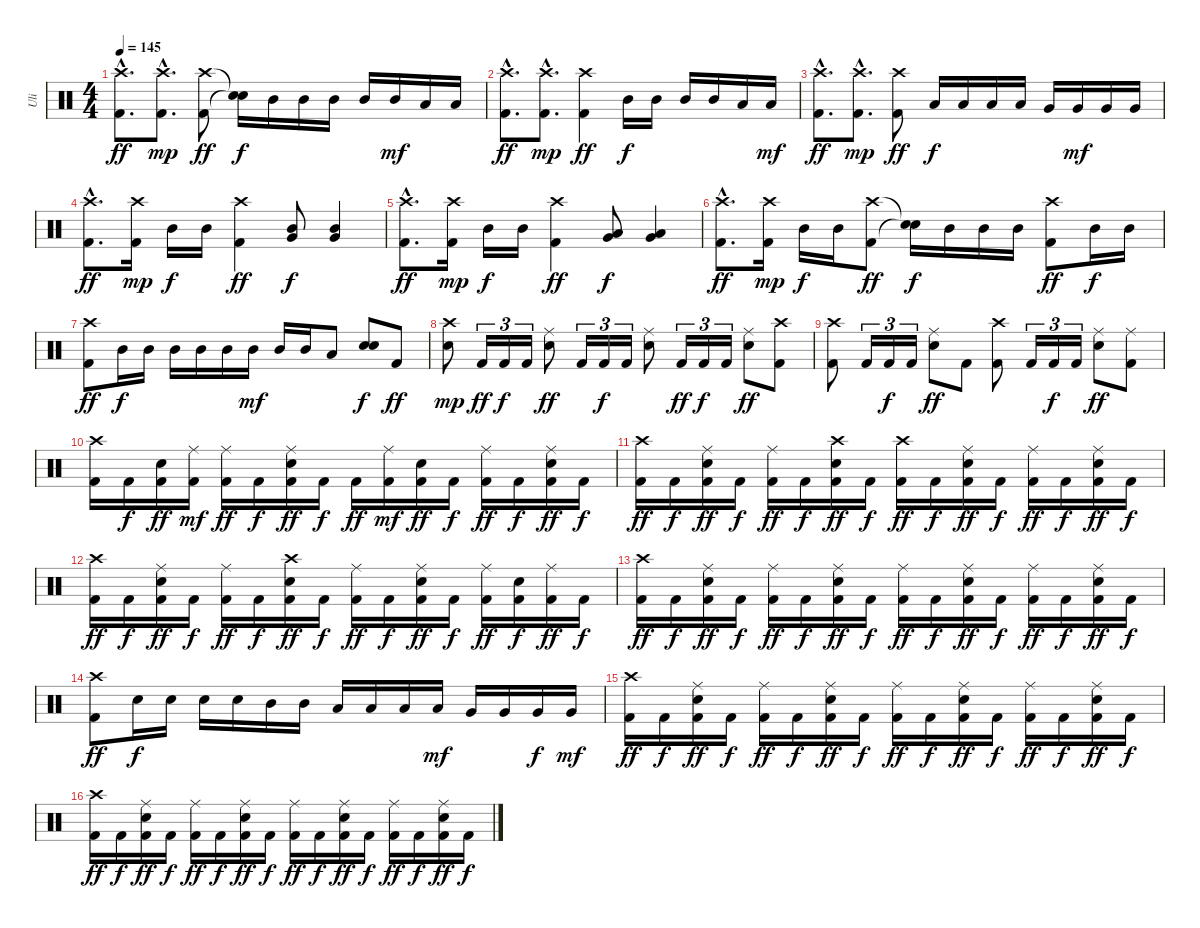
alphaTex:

\track ("Uli" "Uli") {instrument percussion}
\staff {score}
\articulation defaults
\ts (4 4)
\tempo 145
\clef neutral
\ks c
("Crash high (hit)"{hac} "Kick (hit) 2"{hac}).8{d dy ff} ("Crash high (hit)"{hac} "Kick (hit) 2"{hac}).8{d dy mp} ("Crash high (hit)" "Kick (hit) 2").8{dy ff} ("Snare (hit)"{t} "Snare (hit)"{t}).16{dy f} "Mid Tom (hit)".16 "Mid Tom (hit)".16 "Mid Tom (hit)".16 "Mid Tom (hit)".16 "Mid Tom (hit)".16{dy mf} "Low Tom (hit)".16 "Low Tom (hit)".16 |
("Crash high (hit)"{hac} "Kick (hit) 2"{hac}).8{d dy ff} ("Crash high (hit)"{hac} "Kick (hit) 2"{hac}).8{d dy mp} ("Crash high (hit)" "Kick (hit) 2").4{dy ff} "Mid Tom (hit)".16{dy f} "Mid Tom (hit)".16 "Mid Tom (hit)".16 "Mid Tom (hit)".16 "Low Tom (hit)".16 "Low Tom (hit)".16{dy mf} |
("Crash high (hit)"{hac} "Kick (hit) 2"{hac}).8{d dy ff} ("Crash high (hit)"{hac} "Kick (hit) 2"{hac}).8{d dy mp} ("Crash high (hit)" "Kick (hit) 2").8{dy ff} "Low Tom (hit)".16{dy f} "Low Tom (hit)".16 "Low Tom (hit)".16 "Low Tom (hit)".16 "Very Low Tom (hit)".16 "Very Low Tom (hit)".16{dy mf} "Very Low Tom (hit)".16 "Very Low Tom (hit)".16 |
("Crash high (hit)"{hac} "Kick (hit) 2"{hac}).8{d dy ff} ("Crash high (hit)" "Kick (hit) 2").16{dy mp} "Mid Tom (hit)".16{dy f} "Mid Tom (hit)".16 ("Crash high (hit)" "Kick (hit) 2").4{dy ff} ("Mid Tom (hit)" "Very Low Tom (hit)").8{dy f} ("Very Low Tom (hit)" "Mid Tom (hit)").4 |
("Crash high (hit)"{hac} "Kick (hit) 2"{hac}).8{d dy ff} ("Crash high (hit)" "Kick (hit) 2").16{dy mp} "Mid Tom (hit)".16{dy f} "Mid Tom (hit)".16 ("Crash high (hit)" "Kick (hit) 2").4{dy ff} ("Low Tom (hit)" "Very Low Tom (hit)").8{dy f} ("Low Tom (hit)" "Very Low Tom (hit)").4 |
("Crash high (hit)"{hac} "Kick (hit) 2"{hac}).8{d dy ff} ("Crash high (hit)" "Kick (hit) 2").16{dy mp} "Mid Tom (hit)".16{dy f} "Mid Tom (hit)".16 ("Crash high (hit)" "Kick (hit) 2").8{dy ff} ("Snare (hit)"{t} "Snare (hit)"{t}).16{dy f} "Mid Tom (hit)".16 "Mid Tom (hit)".16 "Mid Tom (hit)".16 ("Crash high (hit)" "Kick (hit) 2").8{dy ff} "Mid Tom (hit)".16{dy f} "Mid Tom (hit)".16 |
("Crash high (hit)" "Kick (hit) 2").8{dy ff} "Mid Tom (hit)".16{dy f} "Mid Tom (hit)".16 "Mid Tom (hit)".16 "Mid Tom (hit)".16 "Mid Tom (hit)".16 "Mid Tom (hit)".16{dy mf} "Mid Tom (hit)".16 "Mid Tom (hit)".16 "Low Tom (hit)".8 ("Electric Snare (hit)" "Electric Snare (hit)").8{dy f} "Kick (hit) 2".8{dy ff} |
("Crash high (hit)" "Electric Snare (hit)").8{dy mp} "Kick (hit) 2".16{tu (3 2) dy ff} "Kick (hit) 2".16{tu (3 2) dy f} "Kick (hit) 2".16{tu (3 2)} ("Ride (middle)" "Electric Snare (hit)").8{dy ff} "Kick (hit) 2".16{tu (3 2)} "Kick (hit) 2".16{tu (3 2) dy f} "Kick (hit) 2".16{tu (3 2)} ("Ride (middle)" "Electric Snare (hit)").8 "Kick (hit) 2".16{tu (3 2) dy ff} "Kick (hit) 2".16{tu (3 2) dy f} "Kick (hit) 2".16{tu (3 2)} ("Ride (middle)" "Electric Snare (hit)").8{dy ff} ("Crash high (hit)" "Kick (hit) 2").8 |
("Crash high (hit)" "Kick (hit) 2").8 "Kick (hit) 2".16{tu (3 2)} "Kick (hit) 2".16{tu (3 2) dy f} "Kick (hit) 2".16{tu (3 2)} ("Ride (middle)" "Electric Snare (hit)").8{dy ff} "Kick (hit) 2".8 ("Crash high (hit)" "Kick (hit) 2").8 "Kick (hit) 2".16{tu (3 2)} "Kick (hit) 2".16{tu (3 2) dy f} "Kick (hit) 2".16{tu (3 2)} ("Ride (middle)" "Electric Snare (hit)").8{dy ff} ("Ride (middle)" "Kick (hit) 2").8 |
("Crash high (hit)" "Kick (hit) 2").16 "Kick (hit) 2".16{dy f} ("Electric Snare (hit)" "Kick (hit) 2").16{dy ff} ("Ride (middle)" "Kick (hit) 2").16{dy mf} ("Ride (middle)" "Kick (hit) 2").16{dy ff} "Kick (hit) 2".16{dy f} ("Ride (middle)" "Electric Snare (hit)" "Kick (hit) 2").16{dy ff} "Kick (hit) 2".16{dy f} "Kick (hit) 2".16{dy ff} ("Ride (middle)" "Kick (hit) 2").16{dy mf} ("Electric Snare (hit)" "Kick (hit) 2").16{dy ff} "Kick (hit) 2".16{dy f} ("Ride (middle)" "Kick (hit) 2").16{dy ff} "Kick (hit) 2".16{dy f} ("Ride (middle)" "Electric Snare (hit)" "Kick (hit) 2").16{dy ff} "Kick (hit) 2".16{dy f} |
("Crash high (hit)" "Kick (hit) 2").16{dy ff} "Kick (hit) 2".16{dy f} ("Ride (middle)" "Electric Snare (hit)" "Kick (hit) 2").16{dy ff} "Kick (hit) 2".16{dy f} ("Ride (middle)" "Kick (hit) 2").16{dy ff} "Kick (hit) 2".16{dy f} ("Crash high (hit)" "Electric Snare (hit)" "Kick (hit) 2").16{dy ff} "Kick (hit) 2".16{dy f} ("Crash high (hit)" "Kick (hit) 2").16{dy ff} "Kick (hit) 2".16{dy f} ("Ride (middle)" "Electric Snare (hit)" "Kick (hit) 2").16{dy ff} "Kick (hit) 2".16{dy f} ("Ride (middle)" "Kick (hit) 2").16{dy ff} "Kick (hit) 2".16{dy f} ("Ride (middle)" "Electric Snare (hit)" "Kick (hit) 2").16{dy ff} "Kick (hit) 2".16{dy f} |
("Crash high (hit)" "Kick (hit) 2").16{dy ff} "Kick (hit) 2".16{dy f} ("Ride (middle)" "Electric Snare (hit)" "Kick (hit) 2").16{dy ff} "Kick (hit) 2".16{dy f} ("Ride (middle)" "Kick (hit) 2").16{dy ff} "Kick (hit) 2".16{dy f} ("Crash high (hit)" "Electric Snare (hit)" "Kick (hit) 2").16{dy ff} "Kick (hit) 2".16{dy f} ("Ride (middle)" "Kick (hit) 2").16{dy ff} "Kick (hit) 2".16{dy f} ("Ride (middle)" "Electric Snare (hit)" "Kick (hit) 2").16{dy ff} "Kick (hit) 2".16{dy f} ("Ride (middle)" "Kick (hit) 2").16{dy ff} ("Electric Snare (hit)" "Kick (hit) 2").16{dy f} ("Ride (middle)" "Kick (hit) 2").16{dy ff} "Kick (hit) 2".16{dy f} |
("Crash high (hit)" "Kick (hit) 2").16{dy ff} "Kick (hit) 2".16{dy f} ("Ride (middle)" "Electric Snare (hit)" "Kick (hit) 2").16{dy ff} "Kick (hit) 2".16{dy f} ("Ride (middle)" "Kick (hit) 2").16{dy ff} "Kick (hit) 2".16{dy f} ("Ride (middle)" "Electric Snare (hit)" "Kick (hit) 2").16{dy ff} "Kick (hit) 2".16{dy f} ("Ride (middle)" "Kick (hit) 2").16{dy ff} "Kick (hit) 2".16{dy f} ("Ride (middle)" "Electric Snare (hit)" "Kick (hit) 2").16{dy ff} "Kick (hit) 2".16{dy f} ("Ride (middle)" "Kick (hit) 2").16{dy ff} "Kick (hit) 2".16{dy f} ("Ride (middle)" "Electric Snare (hit)" "Kick (hit) 2").16{dy ff} "Kick (hit) 2".16{dy f} |
("Crash high (hit)" "Kick (hit) 2").8{dy ff} "Electric Snare (hit)".16{dy f} "Electric Snare (hit)".16 "Electric Snare (hit)".16 "Electric Snare (hit)".16 "Mid Tom (hit)".16 "Mid Tom (hit)".16 "Low Tom (hit)".16 "Low Tom (hit)".16 "Low Tom (hit)".16 "Low Tom (hit)".16{dy mf} "Very Low Tom (hit)".16 "Very Low Tom (hit)".16 "Very Low Tom (hit)".16{dy f} "Very Low Tom (hit)".16{dy mf} |
("Crash high (hit)" "Kick (hit) 2").16{dy ff} "Kick (hit) 2".16{dy f} ("Ride (middle)" "Electric Snare (hit)" "Kick (hit) 2").16{dy ff} "Kick (hit) 2".16{dy f} ("Ride (middle)" "Kick (hit) 2").16{dy ff} "Kick (hit) 2".16{dy f} ("Ride (middle)" "Electric Snare (hit)" "Kick (hit) 2").16{dy ff} "Kick (hit) 2".16{dy f} ("Ride (middle)" "Kick (hit) 2").16{dy ff} "Kick (hit) 2".16{dy f} ("Ride (middle)" "Electric Snare (hit)" "Kick (hit) 2").16{dy ff} "Kick (hit) 2".16{dy f} ("Ride (middle)" "Kick (hit) 2").16{dy ff} "Kick (hit) 2".16{dy f} ("Ride (middle)" "Electric Snare (hit)" "Kick (hit) 2").16{dy ff} "Kick (hit) 2".16{dy f} |
("Crash high (hit)" "Kick (hit) 2").16{dy ff} "Kick (hit) 2".16{dy f} ("Ride (middle)" "Electric Snare (hit)" "Kick (hit) 2").16{dy ff} "Kick (hit) 2".16{dy f} ("Ride (middle)" "Kick (hit) 2").16{dy ff} "Kick (hit) 2".16{dy f} ("Ride (middle)" "Electric Snare (hit)" "Kick (hit) 2").16{dy ff} "Kick (hit) 2".16{dy f} ("Ride (middle)" "Kick (hit) 2").16{dy ff} "Kick (hit) 2".16{dy f} ("Ride (middle)" "Electric Snare (hit)" "Kick (hit) 2").16{dy ff} "Kick (hit) 2".16{dy f} ("Ride (middle)" "Kick (hit) 2").16{dy ff} "Kick (hit) 2".16{dy f} ("Ride (middle)" "Electric Snare (hit)" "Kick (hit) 2").16{dy ff} "Kick (hit) 2".16{dy f}
